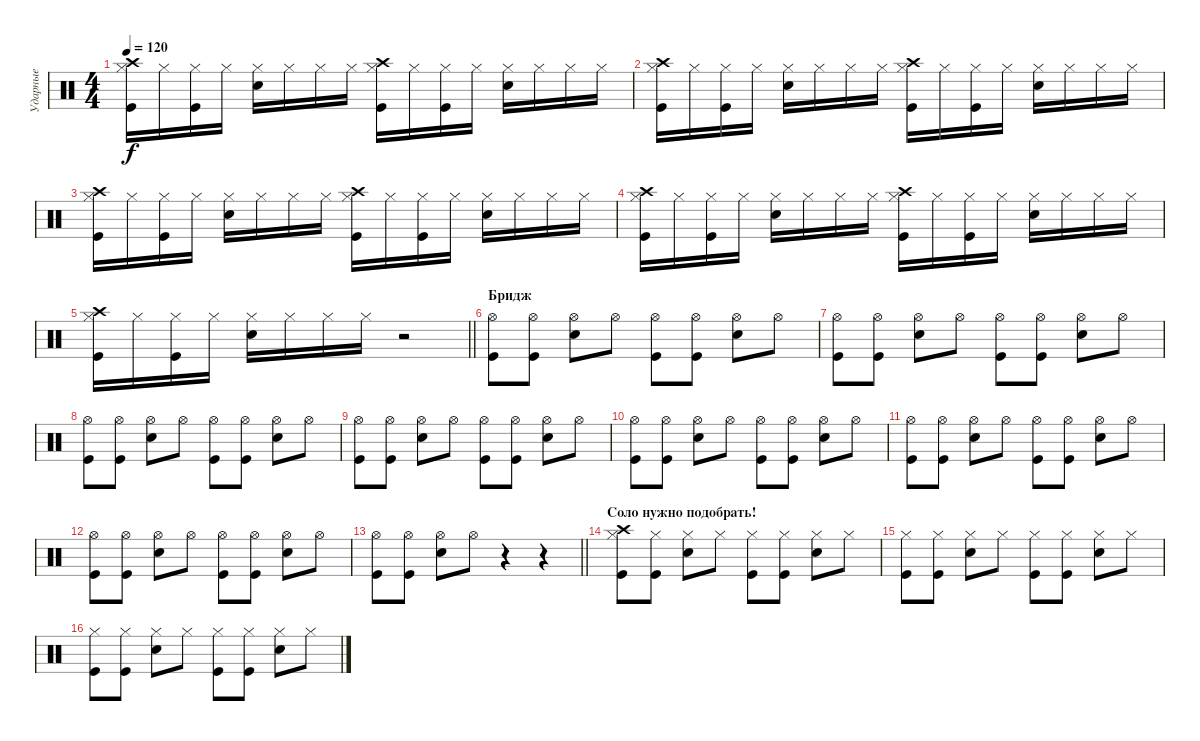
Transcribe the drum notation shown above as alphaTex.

\track ("Ударные" "Ударные") {instrument percussion}
\staff {score}
\articulation defaults
\ts (4 4)
\tempo 120
\clef neutral
\ks c
("Hi-Hat (closed)" "Kick (hit)" "Crash high (hit)").16{dy f} "Hi-Hat (closed)".16 ("Hi-Hat (closed)" "Kick (hit)").16 "Hi-Hat (closed)".16 ("Hi-Hat (closed)" "Snare (hit) 2").16 "Hi-Hat (closed)".16 "Hi-Hat (closed)".16 "Hi-Hat (closed)".16 ("Hi-Hat (closed)" "Kick (hit)" "Crash high (hit)").16 "Hi-Hat (closed)".16 ("Hi-Hat (closed)" "Kick (hit)").16 "Hi-Hat (closed)".16 ("Hi-Hat (closed)" "Snare (hit) 2").16 "Hi-Hat (closed)".16 "Hi-Hat (closed)".16 "Hi-Hat (closed)".16 |
("Hi-Hat (closed)" "Kick (hit)" "Crash high (hit)").16 "Hi-Hat (closed)".16 ("Hi-Hat (closed)" "Kick (hit)").16 "Hi-Hat (closed)".16 ("Hi-Hat (closed)" "Snare (hit) 2").16 "Hi-Hat (closed)".16 "Hi-Hat (closed)".16 "Hi-Hat (closed)".16 ("Hi-Hat (closed)" "Kick (hit)" "Crash high (hit)").16 "Hi-Hat (closed)".16 ("Hi-Hat (closed)" "Kick (hit)").16 "Hi-Hat (closed)".16 ("Hi-Hat (closed)" "Snare (hit) 2").16 "Hi-Hat (closed)".16 "Hi-Hat (closed)".16 "Hi-Hat (closed)".16 |
("Hi-Hat (closed)" "Kick (hit)" "Crash high (hit)").16 "Hi-Hat (closed)".16 ("Hi-Hat (closed)" "Kick (hit)").16 "Hi-Hat (closed)".16 ("Hi-Hat (closed)" "Snare (hit) 2").16 "Hi-Hat (closed)".16 "Hi-Hat (closed)".16 "Hi-Hat (closed)".16 ("Hi-Hat (closed)" "Kick (hit)" "Crash high (hit)").16 "Hi-Hat (closed)".16 ("Hi-Hat (closed)" "Kick (hit)").16 "Hi-Hat (closed)".16 ("Hi-Hat (closed)" "Snare (hit) 2").16 "Hi-Hat (closed)".16 "Hi-Hat (closed)".16 "Hi-Hat (closed)".16 |
("Hi-Hat (closed)" "Kick (hit)" "Crash high (hit)").16 "Hi-Hat (closed)".16 ("Hi-Hat (closed)" "Kick (hit)").16 "Hi-Hat (closed)".16 ("Hi-Hat (closed)" "Snare (hit) 2").16 "Hi-Hat (closed)".16 "Hi-Hat (closed)".16 "Hi-Hat (closed)".16 ("Hi-Hat (closed)" "Kick (hit)" "Crash high (hit)").16 "Hi-Hat (closed)".16 ("Hi-Hat (closed)" "Kick (hit)").16 "Hi-Hat (closed)".16 ("Hi-Hat (closed)" "Snare (hit) 2").16 "Hi-Hat (closed)".16 "Hi-Hat (closed)".16 "Hi-Hat (closed)".16 |
\barLineRight lightlight
("Hi-Hat (closed)" "Kick (hit)" "Crash high (hit)").16 "Hi-Hat (closed)".16 ("Hi-Hat (closed)" "Kick (hit)").16 "Hi-Hat (closed)".16 ("Hi-Hat (closed)" "Snare (hit) 2").16 "Hi-Hat (closed)".16 "Hi-Hat (closed)".16 "Hi-Hat (closed)".16 r.2 |
\section ("" "Бридж")
("Kick (hit)" "Hi-Hat (open)").8 ("Kick (hit)" "Hi-Hat (open)").8 ("Snare (hit) 2" "Hi-Hat (open)").8 "Hi-Hat (open)".8 ("Kick (hit)" "Hi-Hat (open)").8 ("Kick (hit)" "Hi-Hat (open)").8 ("Snare (hit) 2" "Hi-Hat (open)").8 "Hi-Hat (open)".8 |
("Kick (hit)" "Hi-Hat (open)").8 ("Kick (hit)" "Hi-Hat (open)").8 ("Snare (hit) 2" "Hi-Hat (open)").8 "Hi-Hat (open)".8 ("Kick (hit)" "Hi-Hat (open)").8 ("Kick (hit)" "Hi-Hat (open)").8 ("Snare (hit) 2" "Hi-Hat (open)").8 "Hi-Hat (open)".8 |
("Kick (hit)" "Hi-Hat (open)").8 ("Kick (hit)" "Hi-Hat (open)").8 ("Snare (hit) 2" "Hi-Hat (open)").8 "Hi-Hat (open)".8 ("Kick (hit)" "Hi-Hat (open)").8 ("Kick (hit)" "Hi-Hat (open)").8 ("Snare (hit) 2" "Hi-Hat (open)").8 "Hi-Hat (open)".8 |
("Kick (hit)" "Hi-Hat (open)").8 ("Kick (hit)" "Hi-Hat (open)").8 ("Snare (hit) 2" "Hi-Hat (open)").8 "Hi-Hat (open)".8 ("Kick (hit)" "Hi-Hat (open)").8 ("Kick (hit)" "Hi-Hat (open)").8 ("Snare (hit) 2" "Hi-Hat (open)").8 "Hi-Hat (open)".8 |
("Kick (hit)" "Hi-Hat (open)").8 ("Kick (hit)" "Hi-Hat (open)").8 ("Snare (hit) 2" "Hi-Hat (open)").8 "Hi-Hat (open)".8 ("Kick (hit)" "Hi-Hat (open)").8 ("Kick (hit)" "Hi-Hat (open)").8 ("Snare (hit) 2" "Hi-Hat (open)").8 "Hi-Hat (open)".8 |
("Kick (hit)" "Hi-Hat (open)").8 ("Kick (hit)" "Hi-Hat (open)").8 ("Snare (hit) 2" "Hi-Hat (open)").8 "Hi-Hat (open)".8 ("Kick (hit)" "Hi-Hat (open)").8 ("Kick (hit)" "Hi-Hat (open)").8 ("Snare (hit) 2" "Hi-Hat (open)").8 "Hi-Hat (open)".8 |
("Kick (hit)" "Hi-Hat (open)").8 ("Kick (hit)" "Hi-Hat (open)").8 ("Snare (hit) 2" "Hi-Hat (open)").8 "Hi-Hat (open)".8 ("Kick (hit)" "Hi-Hat (open)").8 ("Kick (hit)" "Hi-Hat (open)").8 ("Snare (hit) 2" "Hi-Hat (open)").8 "Hi-Hat (open)".8 |
\barLineRight lightlight
("Kick (hit)" "Hi-Hat (open)").8 ("Kick (hit)" "Hi-Hat (open)").8 ("Snare (hit) 2" "Hi-Hat (open)").8 "Hi-Hat (open)".8 r.4 r.4 |
\section ("" "Соло нужно подобрать!")
("Kick (hit)" "Crash high (hit)" "Hi-Hat (closed)").8 ("Kick (hit)" "Hi-Hat (closed)").8 ("Snare (hit) 2" "Hi-Hat (closed)").8 "Hi-Hat (closed)".8 ("Kick (hit)" "Hi-Hat (closed)").8 ("Kick (hit)" "Hi-Hat (closed)").8 ("Snare (hit) 2" "Hi-Hat (closed)").8 "Hi-Hat (closed)".8 |
("Kick (hit)" "Hi-Hat (closed)").8 ("Kick (hit)" "Hi-Hat (closed)").8 ("Snare (hit) 2" "Hi-Hat (closed)").8 "Hi-Hat (closed)".8 ("Kick (hit)" "Hi-Hat (closed)").8 ("Kick (hit)" "Hi-Hat (closed)").8 ("Snare (hit) 2" "Hi-Hat (closed)").8 "Hi-Hat (closed)".8 |
("Kick (hit)" "Hi-Hat (closed)").8 ("Kick (hit)" "Hi-Hat (closed)").8 ("Snare (hit) 2" "Hi-Hat (closed)").8 "Hi-Hat (closed)".8 ("Kick (hit)" "Hi-Hat (closed)").8 ("Kick (hit)" "Hi-Hat (closed)").8 ("Snare (hit) 2" "Hi-Hat (closed)").8 "Hi-Hat (closed)".8
